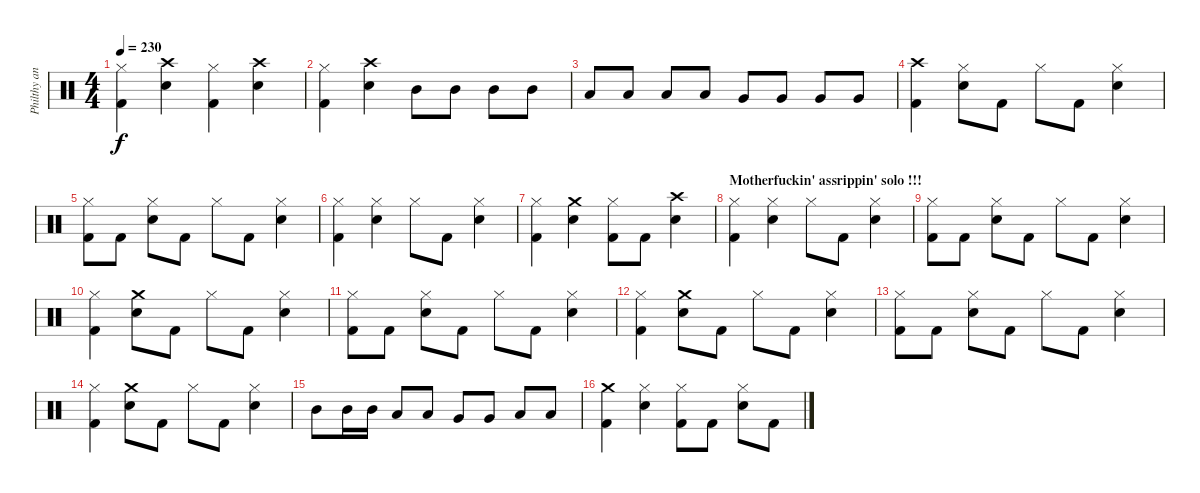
\track ("Philthy animal Taylor" "Philthy an") {instrument percussion}
\staff {score}
\articulation defaults
\ts (4 4)
\tempo 230
\clef neutral
\ks c
("Hi-Hat (closed)" "Kick (hit) 2").4{dy f} ("Crash high (hit)" "Snare (hit) 2").4 ("Hi-Hat (closed)" "Kick (hit) 2").4 ("Crash high (hit)" "Snare (hit) 2").4 |
("Hi-Hat (closed)" "Kick (hit) 2").4 ("Crash high (hit)" "Snare (hit) 2").4 "Mid Tom (hit)".8 "Mid Tom (hit)".8 "Mid Tom (hit)".8 "Mid Tom (hit)".8 |
"Low Tom (hit)".8 "Low Tom (hit)".8 "Low Tom (hit)".8 "Low Tom (hit)".8 "Very Low Tom (hit)".8 "Very Low Tom (hit)".8 "Very Low Tom (hit)".8 "Very Low Tom (hit)".8 |
("Crash high (hit)" "Kick (hit) 2").4 ("Hi-Hat (closed)" "Snare (hit) 2").8 "Kick (hit) 2".8 "Hi-Hat (closed)".8 "Kick (hit) 2".8 ("Hi-Hat (closed)" "Snare (hit) 2").4 |
("Hi-Hat (closed)" "Kick (hit) 2").8 "Kick (hit) 2".8 ("Hi-Hat (closed)" "Snare (hit) 2").8 "Kick (hit) 2".8 "Hi-Hat (closed)".8 "Kick (hit) 2".8 ("Hi-Hat (closed)" "Snare (hit) 2").4 |
("Hi-Hat (closed)" "Kick (hit) 2").4 ("Hi-Hat (closed)" "Snare (hit) 2").4 "Hi-Hat (closed)".8 "Kick (hit) 2".8 ("Hi-Hat (closed)" "Snare (hit) 2").4 |
("Hi-Hat (closed)" "Kick (hit) 2").4 ("Crash medium (hit)" "Snare (hit) 2").4 ("Hi-Hat (closed)" "Kick (hit) 2").8 "Kick (hit) 2".8 ("Crash high (hit)" "Snare (hit) 2").4 |
\section ("" "Motherfuckin' assrippin' solo !!!")
("Hi-Hat (closed)" "Kick (hit) 2").4 ("Hi-Hat (closed)" "Snare (hit) 2").4 "Hi-Hat (closed)".8 "Kick (hit) 2".8 ("Hi-Hat (closed)" "Snare (hit) 2").4 |
("Hi-Hat (closed)" "Kick (hit) 2").8 "Kick (hit) 2".8 ("Hi-Hat (closed)" "Snare (hit) 2").8 "Kick (hit) 2".8 "Hi-Hat (closed)".8 "Kick (hit) 2".8 ("Hi-Hat (closed)" "Snare (hit) 2").4 |
("Hi-Hat (closed)" "Kick (hit) 2").4 ("Crash medium (hit)" "Snare (hit) 2").8 "Kick (hit) 2".8 "Hi-Hat (closed)".8 "Kick (hit) 2".8 ("Hi-Hat (closed)" "Snare (hit) 2").4 |
("Hi-Hat (closed)" "Kick (hit) 2").8 "Kick (hit) 2".8 ("Hi-Hat (closed)" "Snare (hit) 2").8 "Kick (hit) 2".8 "Hi-Hat (closed)".8 "Kick (hit) 2".8 ("Hi-Hat (closed)" "Snare (hit) 2").4 |
("Hi-Hat (closed)" "Kick (hit) 2").4 ("Crash medium (hit)" "Snare (hit) 2").8 "Kick (hit) 2".8 "Hi-Hat (closed)".8 "Kick (hit) 2".8 ("Hi-Hat (closed)" "Snare (hit) 2").4 |
("Hi-Hat (closed)" "Kick (hit) 2").8 "Kick (hit) 2".8 ("Hi-Hat (closed)" "Snare (hit) 2").8 "Kick (hit) 2".8 "Hi-Hat (closed)".8 "Kick (hit) 2".8 ("Hi-Hat (closed)" "Snare (hit) 2").4 |
("Hi-Hat (closed)" "Kick (hit) 2").4 ("Crash medium (hit)" "Snare (hit) 2").8 "Kick (hit) 2".8 "Hi-Hat (closed)".8 "Kick (hit) 2".8 ("Hi-Hat (closed)" "Snare (hit) 2").4 |
"Mid Tom (hit)".8 "Mid Tom (hit)".16 "Mid Tom (hit)".16 "Low Tom (hit)".8 "Low Tom (hit)".8 "Very Low Tom (hit)".8 "Very Low Tom (hit)".8 "Low Floor Tom (hit)".8 "Low Floor Tom (hit)".8 |
("Crash medium (hit)" "Kick (hit) 2").4 ("Hi-Hat (closed)" "Snare (hit) 2").4 ("Hi-Hat (closed)" "Kick (hit) 2").8 "Kick (hit) 2".8 ("Hi-Hat (closed)" "Snare (hit) 2").8 "Kick (hit) 2".8
